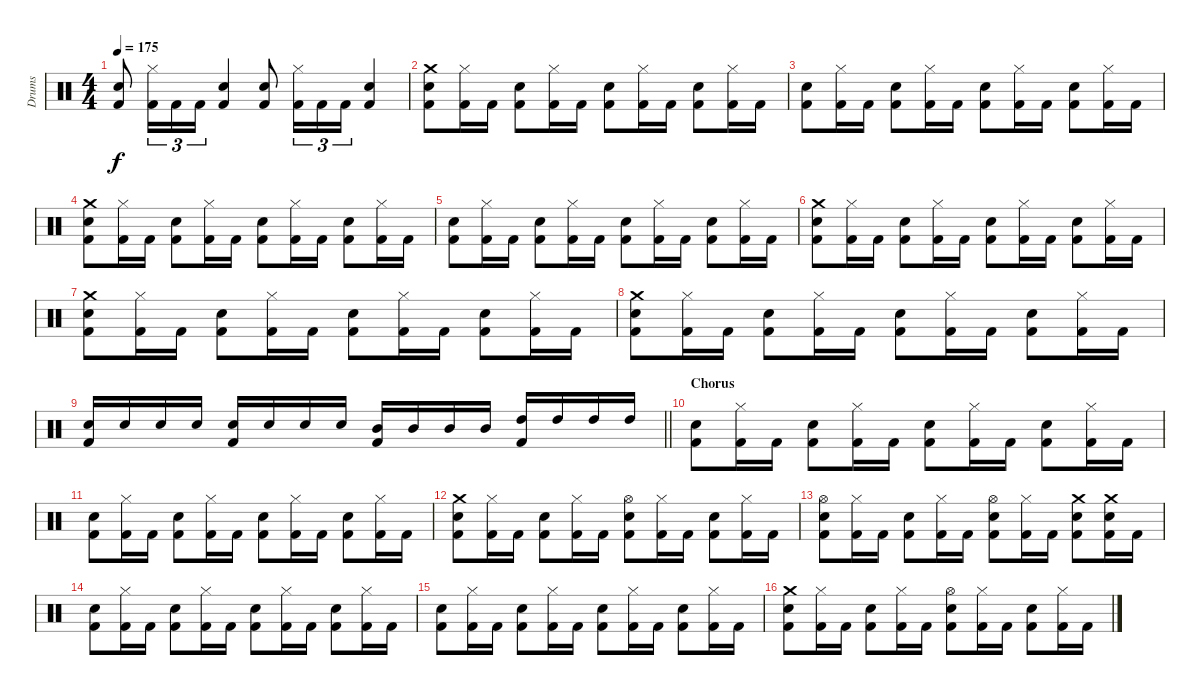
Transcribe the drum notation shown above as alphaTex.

\track ("Drums" "Drums") {instrument percussion}
\staff {score}
\articulation defaults
\ts (4 4)
\tempo 175
\clef neutral
\ks c
("Kick (hit) 2" "Snare (hit) 2").8{dy f} ("Kick (hit) 2" "Hi-Hat (closed)").16{tu (3 2)} "Kick (hit) 2".16{tu (3 2)} "Kick (hit) 2".16{tu (3 2)} ("Kick (hit) 2" "Snare (hit) 2").4 ("Kick (hit) 2" "Snare (hit) 2").8 ("Kick (hit) 2" "Hi-Hat (closed)").16{tu (3 2)} "Kick (hit) 2".16{tu (3 2)} "Kick (hit) 2".16{tu (3 2)} ("Kick (hit) 2" "Snare (hit) 2").4 |
("Kick (hit) 2" "Snare (hit) 2" "Crash medium (hit)").8 ("Kick (hit) 2" "Hi-Hat (closed)").16 "Kick (hit) 2".16 ("Kick (hit) 2" "Snare (hit) 2").8 ("Kick (hit) 2" "Hi-Hat (closed)").16 "Kick (hit) 2".16 ("Kick (hit) 2" "Snare (hit) 2").8 ("Kick (hit) 2" "Hi-Hat (closed)").16 "Kick (hit) 2".16 ("Kick (hit) 2" "Snare (hit) 2").8 ("Kick (hit) 2" "Hi-Hat (closed)").16 "Kick (hit) 2".16 |
("Kick (hit) 2" "Snare (hit) 2").8 ("Kick (hit) 2" "Hi-Hat (closed)").16 "Kick (hit) 2".16 ("Kick (hit) 2" "Snare (hit) 2").8 ("Kick (hit) 2" "Hi-Hat (closed)").16 "Kick (hit) 2".16 ("Kick (hit) 2" "Snare (hit) 2").8 ("Kick (hit) 2" "Hi-Hat (closed)").16 "Kick (hit) 2".16 ("Kick (hit) 2" "Snare (hit) 2").8 ("Kick (hit) 2" "Hi-Hat (closed)").16 "Kick (hit) 2".16 |
("Kick (hit) 2" "Crash medium (hit)" "Snare (hit) 2").8 ("Kick (hit) 2" "Hi-Hat (closed)").16 "Kick (hit) 2".16 ("Kick (hit) 2" "Snare (hit) 2").8 ("Kick (hit) 2" "Hi-Hat (closed)").16 "Kick (hit) 2".16 ("Kick (hit) 2" "Snare (hit) 2").8 ("Kick (hit) 2" "Hi-Hat (closed)").16 "Kick (hit) 2".16 ("Kick (hit) 2" "Snare (hit) 2").8 ("Kick (hit) 2" "Hi-Hat (closed)").16 "Kick (hit) 2".16 |
("Kick (hit) 2" "Snare (hit) 2").8 ("Kick (hit) 2" "Hi-Hat (closed)").16 "Kick (hit) 2".16 ("Kick (hit) 2" "Snare (hit) 2").8 ("Kick (hit) 2" "Hi-Hat (closed)").16 "Kick (hit) 2".16 ("Kick (hit) 2" "Snare (hit) 2").8 ("Kick (hit) 2" "Hi-Hat (closed)").16 "Kick (hit) 2".16 ("Kick (hit) 2" "Snare (hit) 2").8 ("Kick (hit) 2" "Hi-Hat (closed)").16 "Kick (hit) 2".16 |
("Kick (hit) 2" "Crash medium (hit)" "Snare (hit) 2").8 ("Kick (hit) 2" "Hi-Hat (closed)").16 "Kick (hit) 2".16 ("Kick (hit) 2" "Snare (hit) 2").8 ("Kick (hit) 2" "Hi-Hat (closed)").16 "Kick (hit) 2".16 ("Kick (hit) 2" "Snare (hit) 2").8 ("Kick (hit) 2" "Hi-Hat (closed)").16 "Kick (hit) 2".16 ("Kick (hit) 2" "Snare (hit) 2").8 ("Kick (hit) 2" "Hi-Hat (closed)").16 "Kick (hit) 2".16 |
("Kick (hit) 2" "Snare (hit) 2" "Crash medium (hit)").8 ("Kick (hit) 2" "Hi-Hat (closed)").16 "Kick (hit) 2".16 ("Kick (hit) 2" "Snare (hit) 2").8 ("Kick (hit) 2" "Hi-Hat (closed)").16 "Kick (hit) 2".16 ("Kick (hit) 2" "Snare (hit) 2").8 ("Kick (hit) 2" "Hi-Hat (closed)").16 "Kick (hit) 2".16 ("Kick (hit) 2" "Snare (hit) 2").8 ("Kick (hit) 2" "Hi-Hat (closed)").16 "Kick (hit) 2".16 |
("Kick (hit) 2" "Snare (hit) 2" "Crash medium (hit)").8 ("Kick (hit) 2" "Hi-Hat (closed)").16 "Kick (hit) 2".16 ("Kick (hit) 2" "Snare (hit) 2").8 ("Kick (hit) 2" "Hi-Hat (closed)").16 "Kick (hit) 2".16 ("Kick (hit) 2" "Snare (hit) 2").8 ("Kick (hit) 2" "Hi-Hat (closed)").16 "Kick (hit) 2".16 ("Kick (hit) 2" "Snare (hit) 2").8 ("Kick (hit) 2" "Hi-Hat (closed)").16 "Kick (hit) 2".16 |
\barLineRight lightlight
("Kick (hit) 2" "Snare (hit) 2").16 "Snare (hit) 2".16 "Snare (hit) 2".16 "Snare (hit) 2".16 ("Kick (hit) 2" "Electric Snare (hit)").16 "Electric Snare (hit)".16 "Electric Snare (hit)".16 "Electric Snare (hit)".16 ("Kick (hit) 2" "Mid Tom (hit)").16 "Mid Tom (hit)".16 "Mid Tom (hit)".16 "Mid Tom (hit)".16 ("Kick (hit) 2" "High Tom (hit)").16 "High Tom (hit)".16 "High Tom (hit)".16 "High Tom (hit)".16 |
\section ("" "Chorus")
("Kick (hit) 2" "Snare (hit) 2").8 ("Kick (hit) 2" "Hi-Hat (closed)").16 "Kick (hit) 2".16 ("Kick (hit) 2" "Snare (hit) 2").8 ("Kick (hit) 2" "Hi-Hat (closed)").16 "Kick (hit) 2".16 ("Kick (hit) 2" "Snare (hit) 2").8 ("Kick (hit) 2" "Hi-Hat (closed)").16 "Kick (hit) 2".16 ("Kick (hit) 2" "Snare (hit) 2").8 ("Kick (hit) 2" "Hi-Hat (closed)").16 "Kick (hit) 2".16 |
("Kick (hit) 2" "Snare (hit) 2").8 ("Kick (hit) 2" "Hi-Hat (closed)").16 "Kick (hit) 2".16 ("Kick (hit) 2" "Snare (hit) 2").8 ("Kick (hit) 2" "Hi-Hat (closed)").16 "Kick (hit) 2".16 ("Kick (hit) 2" "Snare (hit) 2").8 ("Kick (hit) 2" "Hi-Hat (closed)").16 "Kick (hit) 2".16 ("Kick (hit) 2" "Snare (hit) 2").8 ("Kick (hit) 2" "Hi-Hat (closed)").16 "Kick (hit) 2".16 |
("Kick (hit) 2" "Snare (hit) 2" "Crash medium (hit)").8 ("Kick (hit) 2" "Hi-Hat (closed)").16 "Kick (hit) 2".16 ("Kick (hit) 2" "Snare (hit) 2").8 ("Kick (hit) 2" "Hi-Hat (closed)").16 "Kick (hit) 2".16 ("Kick (hit) 2" "Snare (hit) 2" "Hi-Hat (open)").8 ("Kick (hit) 2" "Hi-Hat (closed)").16 "Kick (hit) 2".16 ("Kick (hit) 2" "Snare (hit) 2").8 ("Kick (hit) 2" "Hi-Hat (closed)").16 "Kick (hit) 2".16 |
("Kick (hit) 2" "Snare (hit) 2" "Hi-Hat (open)").8 ("Kick (hit) 2" "Hi-Hat (closed)").16 "Kick (hit) 2".16 ("Kick (hit) 2" "Snare (hit) 2").8 ("Kick (hit) 2" "Hi-Hat (closed)").16 "Kick (hit) 2".16 ("Kick (hit) 2" "Snare (hit) 2" "Hi-Hat (open)").8 ("Kick (hit) 2" "Hi-Hat (closed)").16 "Kick (hit) 2".16 ("Kick (hit) 2" "Snare (hit) 2" "Crash medium (hit)").8 ("Kick (hit) 2" "Snare (hit) 2" "Crash medium (hit)").16 "Kick (hit) 2".16 |
("Kick (hit) 2" "Snare (hit) 2").8 ("Kick (hit) 2" "Hi-Hat (closed)").16 "Kick (hit) 2".16 ("Kick (hit) 2" "Snare (hit) 2").8 ("Kick (hit) 2" "Hi-Hat (closed)").16 "Kick (hit) 2".16 ("Kick (hit) 2" "Snare (hit) 2").8 ("Kick (hit) 2" "Hi-Hat (closed)").16 "Kick (hit) 2".16 ("Kick (hit) 2" "Snare (hit) 2").8 ("Kick (hit) 2" "Hi-Hat (closed)").16 "Kick (hit) 2".16 |
("Kick (hit) 2" "Snare (hit) 2").8 ("Kick (hit) 2" "Hi-Hat (closed)").16 "Kick (hit) 2".16 ("Kick (hit) 2" "Snare (hit) 2").8 ("Kick (hit) 2" "Hi-Hat (closed)").16 "Kick (hit) 2".16 ("Kick (hit) 2" "Snare (hit) 2").8 ("Kick (hit) 2" "Hi-Hat (closed)").16 "Kick (hit) 2".16 ("Kick (hit) 2" "Snare (hit) 2").8 ("Kick (hit) 2" "Hi-Hat (closed)").16 "Kick (hit) 2".16 |
("Kick (hit) 2" "Snare (hit) 2" "Crash medium (hit)").8 ("Kick (hit) 2" "Hi-Hat (closed)").16 "Kick (hit) 2".16 ("Kick (hit) 2" "Snare (hit) 2").8 ("Kick (hit) 2" "Hi-Hat (closed)").16 "Kick (hit) 2".16 ("Kick (hit) 2" "Snare (hit) 2" "Hi-Hat (open)").8 ("Kick (hit) 2" "Hi-Hat (closed)").16 "Kick (hit) 2".16 ("Kick (hit) 2" "Snare (hit) 2").8 ("Kick (hit) 2" "Hi-Hat (closed)").16 "Kick (hit) 2".16
